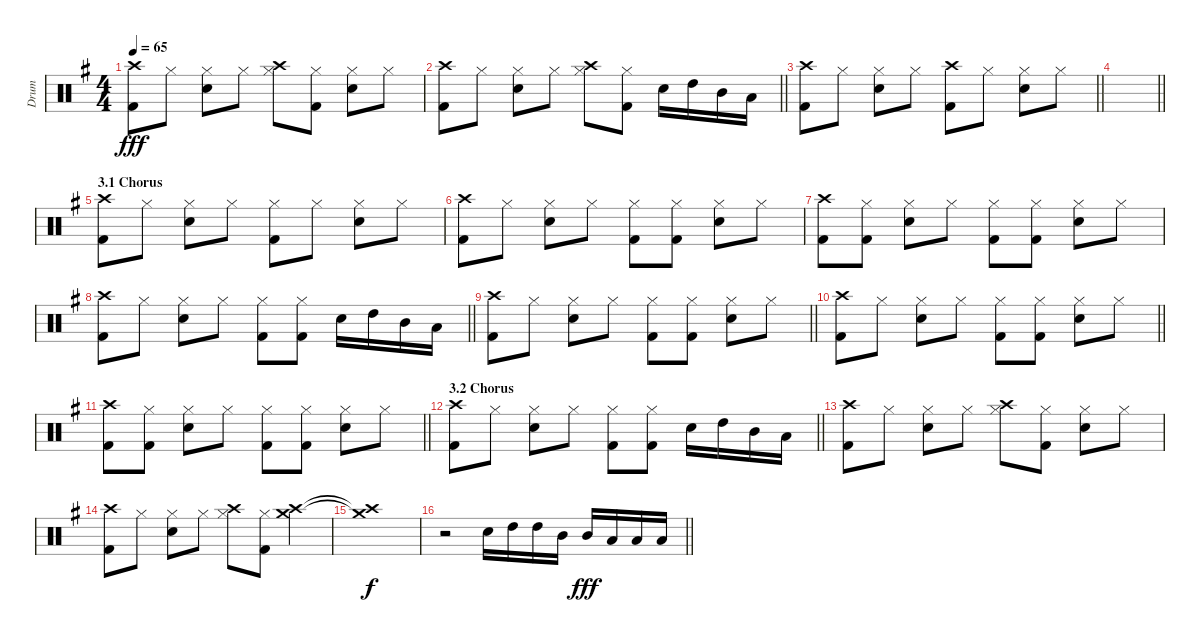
\track ("Drum" "Drum") {instrument percussion}
\staff {score}
\articulation defaults
\ts (4 4)
\tempo 65
\clef neutral
\ks eminor
("Crash high (hit)" "Kick (hit) 2").8{dy fff} "Hi-Hat (closed)".8 ("Electric Snare (hit)" "Hi-Hat (closed)").8 "Hi-Hat (closed)".8 ("Crash high (hit)" "Hi-Hat (closed)").8 ("Kick (hit) 2" "Hi-Hat (closed)").8 ("Electric Snare (hit)" "Hi-Hat (closed)").8 "Hi-Hat (closed)".8 |
\barLineRight lightlight
("Crash high (hit)" "Kick (hit) 2").8 "Hi-Hat (closed)".8 ("Electric Snare (hit)" "Hi-Hat (closed)").8 "Hi-Hat (closed)".8 ("Crash high (hit)" "Hi-Hat (closed)").8 ("Kick (hit) 2" "Hi-Hat (closed)").8 "Electric Snare (hit)".16 "High Tom (hit)".16 "Mid Tom (hit)".16 "Low Tom (hit)".16 |
\barLineRight lightlight
("Crash high (hit)" "Kick (hit) 2").8 "Hi-Hat (closed)".8 ("Electric Snare (hit)" "Hi-Hat (closed)").8 "Hi-Hat (closed)".8 ("Crash high (hit)" "Kick (hit) 2").8 "Hi-Hat (closed)".8 ("Electric Snare (hit)" "Hi-Hat (closed)").8 "Hi-Hat (closed)".8 |
\barLineRight lightlight
|
\section ("" "3.1 Chorus")
("Crash high (hit)" "Kick (hit) 2").8 "Hi-Hat (closed)".8 ("Electric Snare (hit)" "Hi-Hat (closed)").8 "Hi-Hat (closed)".8 ("Kick (hit) 2" "Hi-Hat (closed)").8 "Hi-Hat (closed)".8 ("Electric Snare (hit)" "Hi-Hat (closed)").8 "Hi-Hat (closed)".8 |
("Crash high (hit)" "Kick (hit) 2").8 "Hi-Hat (closed)".8 ("Electric Snare (hit)" "Hi-Hat (closed)").8 "Hi-Hat (closed)".8 ("Kick (hit) 2" "Hi-Hat (closed)").8 ("Kick (hit) 2" "Hi-Hat (closed)").8 ("Electric Snare (hit)" "Hi-Hat (closed)").8 "Hi-Hat (closed)".8 |
("Crash high (hit)" "Kick (hit) 2").8 ("Kick (hit) 2" "Hi-Hat (closed)").8 ("Electric Snare (hit)" "Hi-Hat (closed)").8 "Hi-Hat (closed)".8 ("Kick (hit) 2" "Hi-Hat (closed)").8 ("Kick (hit) 2" "Hi-Hat (closed)").8 ("Electric Snare (hit)" "Hi-Hat (closed)").8 "Hi-Hat (closed)".8 |
\barLineRight lightlight
("Crash high (hit)" "Kick (hit) 2").8 "Hi-Hat (closed)".8 ("Electric Snare (hit)" "Hi-Hat (closed)").8 "Hi-Hat (closed)".8 ("Kick (hit) 2" "Hi-Hat (closed)").8 ("Kick (hit) 2" "Hi-Hat (closed)").8 "Electric Snare (hit)".16 "High Tom (hit)".16 "Mid Tom (hit)".16 "Low Tom (hit)".16 |
\barLineRight lightlight
("Crash high (hit)" "Kick (hit) 2").8 "Hi-Hat (closed)".8 ("Electric Snare (hit)" "Hi-Hat (closed)").8 "Hi-Hat (closed)".8 ("Kick (hit) 2" "Hi-Hat (closed)").8 ("Kick (hit) 2" "Hi-Hat (closed)").8 ("Electric Snare (hit)" "Hi-Hat (closed)").8 "Hi-Hat (closed)".8 |
\barLineRight lightlight
("Crash high (hit)" "Kick (hit) 2").8 "Hi-Hat (closed)".8 ("Electric Snare (hit)" "Hi-Hat (closed)").8 "Hi-Hat (closed)".8 ("Kick (hit) 2" "Hi-Hat (closed)").8 ("Kick (hit) 2" "Hi-Hat (closed)").8 ("Electric Snare (hit)" "Hi-Hat (closed)").8 "Hi-Hat (closed)".8 |
\barLineRight lightlight
("Crash high (hit)" "Kick (hit) 2").8 ("Kick (hit) 2" "Hi-Hat (closed)").8 ("Electric Snare (hit)" "Hi-Hat (closed)").8 "Hi-Hat (closed)".8 ("Kick (hit) 2" "Hi-Hat (closed)").8 ("Kick (hit) 2" "Hi-Hat (closed)").8 ("Electric Snare (hit)" "Hi-Hat (closed)").8 "Hi-Hat (closed)".8 |
\section ("" "3.2 Chorus")
\barLineRight lightlight
("Crash high (hit)" "Kick (hit) 2").8 "Hi-Hat (closed)".8 ("Electric Snare (hit)" "Hi-Hat (closed)").8 "Hi-Hat (closed)".8 ("Kick (hit) 2" "Hi-Hat (closed)").8 ("Kick (hit) 2" "Hi-Hat (closed)").8 "Electric Snare (hit)".16 "High Tom (hit)".16 "Mid Tom (hit)".16 "Low Tom (hit)".16 |
("Crash high (hit)" "Kick (hit) 2").8 "Hi-Hat (closed)".8 ("Electric Snare (hit)" "Hi-Hat (closed)").8 "Hi-Hat (closed)".8 ("Crash high (hit)" "Hi-Hat (closed)").8 ("Kick (hit) 2" "Hi-Hat (closed)").8 ("Electric Snare (hit)" "Hi-Hat (closed)").8 "Hi-Hat (closed)".8 |
("Crash high (hit)" "Kick (hit) 2").8 "Hi-Hat (closed)".8 ("Electric Snare (hit)" "Hi-Hat (closed)").8 "Hi-Hat (closed)".8 ("Crash high (hit)" "Hi-Hat (closed)").8 ("Kick (hit) 2" "Hi-Hat (closed)").8 ("Crash medium (hit)" "Crash high (hit)").4 |
("Crash medium (hit)"{t} "Crash high (hit)"{t}).1{dy f} |
\barLineRight lightlight
r.2 "Electric Snare (hit)".16 "High Tom (hit)".16 "High Tom (hit)".16 "Mid Tom (hit)".16 "Mid Tom (hit)".16{dy fff} "Low Tom (hit)".16 "Low Tom (hit)".16 "Low Tom (hit)".16
